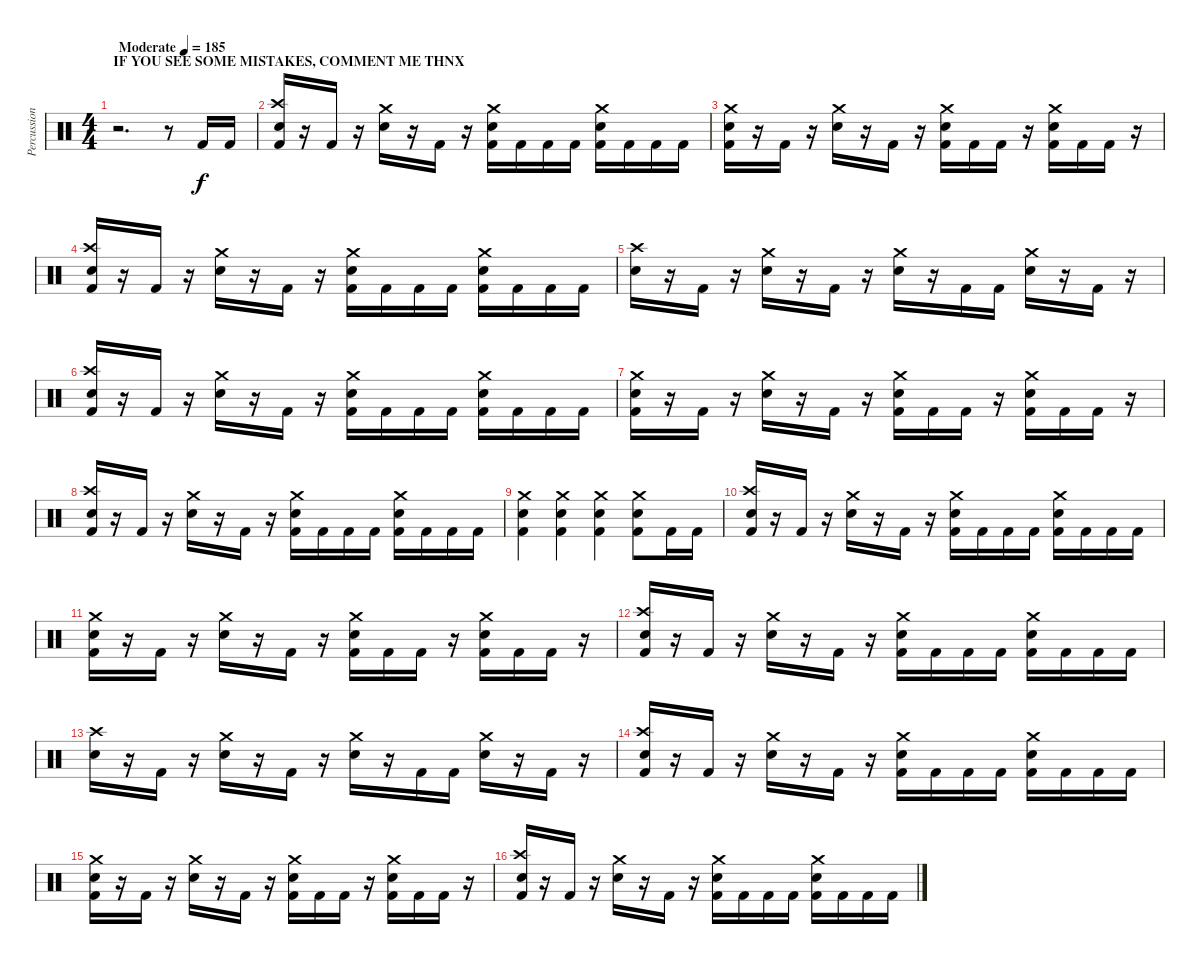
\track ("Percussion" "Percussion") {instrument percussion}
\staff {score}
\articulation defaults
\ts (4 4)
\section ("" "IF YOU SEE SOME MISTAKES, COMMENT ME THNX")
\tempo (185 "Moderate")
\clef neutral
\ks c
r.2{d dy f} r.8 "Kick (hit) 2".16 "Kick (hit) 2".16 |
("Crash high (hit)" "Snare (hit) 2" "Kick (hit) 2").16 r.16 "Kick (hit) 2".16 r.16 ("Crash medium (hit)" "Snare (hit) 2").16 r.16 "Kick (hit) 2".16 r.16 ("Crash medium (hit)" "Snare (hit) 2" "Kick (hit) 2").16 "Kick (hit) 2".16 "Kick (hit) 2".16 "Kick (hit) 2".16 ("Crash medium (hit)" "Snare (hit) 2" "Kick (hit) 2").16 "Kick (hit) 2".16 "Kick (hit) 2".16 "Kick (hit) 2".16 |
("Crash medium (hit)" "Snare (hit) 2" "Kick (hit) 2").16 r.16 "Kick (hit) 2".16 r.16 ("Crash medium (hit)" "Snare (hit) 2").16 r.16 "Kick (hit) 2".16 r.16 ("Crash medium (hit)" "Snare (hit) 2" "Kick (hit) 2").16 "Kick (hit) 2".16 "Kick (hit) 2".16 r.16 ("Crash medium (hit)" "Snare (hit) 2" "Kick (hit) 2").16 "Kick (hit) 2".16 "Kick (hit) 2".16 r.16 |
("Crash high (hit)" "Snare (hit) 2" "Kick (hit) 2").16 r.16 "Kick (hit) 2".16 r.16 ("Crash medium (hit)" "Snare (hit) 2").16 r.16 "Kick (hit) 2".16 r.16 ("Crash medium (hit)" "Snare (hit) 2" "Kick (hit) 2").16 "Kick (hit) 2".16 "Kick (hit) 2".16 "Kick (hit) 2".16 ("Crash medium (hit)" "Snare (hit) 2" "Kick (hit) 2").16 "Kick (hit) 2".16 "Kick (hit) 2".16 "Kick (hit) 2".16 |
("Crash high (hit)" "Snare (hit) 2").16 r.16 "Kick (hit) 2".16 r.16 ("Crash medium (hit)" "Snare (hit) 2").16 r.16 "Kick (hit) 2".16 r.16 ("Crash medium (hit)" "Snare (hit) 2").16 r.16 "Kick (hit) 2".16 "Kick (hit) 2".16 ("Crash medium (hit)" "Snare (hit) 2").16 r.16 "Kick (hit) 2".16 r.16 |
("Crash high (hit)" "Snare (hit) 2" "Kick (hit) 2").16 r.16 "Kick (hit) 2".16 r.16 ("Crash medium (hit)" "Snare (hit) 2").16 r.16 "Kick (hit) 2".16 r.16 ("Crash medium (hit)" "Snare (hit) 2" "Kick (hit) 2").16 "Kick (hit) 2".16 "Kick (hit) 2".16 "Kick (hit) 2".16 ("Crash medium (hit)" "Snare (hit) 2" "Kick (hit) 2").16 "Kick (hit) 2".16 "Kick (hit) 2".16 "Kick (hit) 2".16 |
("Crash medium (hit)" "Snare (hit) 2" "Kick (hit) 2").16 r.16 "Kick (hit) 2".16 r.16 ("Crash medium (hit)" "Snare (hit) 2").16 r.16 "Kick (hit) 2".16 r.16 ("Crash medium (hit)" "Snare (hit) 2" "Kick (hit) 2").16 "Kick (hit) 2".16 "Kick (hit) 2".16 r.16 ("Crash medium (hit)" "Snare (hit) 2" "Kick (hit) 2").16 "Kick (hit) 2".16 "Kick (hit) 2".16 r.16 |
("Crash high (hit)" "Snare (hit) 2" "Kick (hit) 2").16 r.16 "Kick (hit) 2".16 r.16 ("Crash medium (hit)" "Snare (hit) 2").16 r.16 "Kick (hit) 2".16 r.16 ("Crash medium (hit)" "Snare (hit) 2" "Kick (hit) 2").16 "Kick (hit) 2".16 "Kick (hit) 2".16 "Kick (hit) 2".16 ("Crash medium (hit)" "Snare (hit) 2" "Kick (hit) 2").16 "Kick (hit) 2".16 "Kick (hit) 2".16 "Kick (hit) 2".16 |
("Crash medium (hit)" "Snare (hit) 2" "Kick (hit) 2").4 ("Crash medium (hit)" "Snare (hit) 2" "Kick (hit) 2").4 ("Crash medium (hit)" "Snare (hit) 2" "Kick (hit) 2").4 ("Crash medium (hit)" "Snare (hit) 2" "Kick (hit) 2").8 "Kick (hit) 2".16 "Kick (hit) 2".16 |
("Crash high (hit)" "Snare (hit) 2" "Kick (hit) 2").16 r.16 "Kick (hit) 2".16 r.16 ("Crash medium (hit)" "Snare (hit) 2").16 r.16 "Kick (hit) 2".16 r.16 ("Crash medium (hit)" "Snare (hit) 2" "Kick (hit) 2").16 "Kick (hit) 2".16 "Kick (hit) 2".16 "Kick (hit) 2".16 ("Crash medium (hit)" "Snare (hit) 2" "Kick (hit) 2").16 "Kick (hit) 2".16 "Kick (hit) 2".16 "Kick (hit) 2".16 |
("Crash medium (hit)" "Snare (hit) 2" "Kick (hit) 2").16 r.16 "Kick (hit) 2".16 r.16 ("Crash medium (hit)" "Snare (hit) 2").16 r.16 "Kick (hit) 2".16 r.16 ("Crash medium (hit)" "Snare (hit) 2" "Kick (hit) 2").16 "Kick (hit) 2".16 "Kick (hit) 2".16 r.16 ("Crash medium (hit)" "Snare (hit) 2" "Kick (hit) 2").16 "Kick (hit) 2".16 "Kick (hit) 2".16 r.16 |
("Crash high (hit)" "Snare (hit) 2" "Kick (hit) 2").16 r.16 "Kick (hit) 2".16 r.16 ("Crash medium (hit)" "Snare (hit) 2").16 r.16 "Kick (hit) 2".16 r.16 ("Crash medium (hit)" "Snare (hit) 2" "Kick (hit) 2").16 "Kick (hit) 2".16 "Kick (hit) 2".16 "Kick (hit) 2".16 ("Crash medium (hit)" "Snare (hit) 2" "Kick (hit) 2").16 "Kick (hit) 2".16 "Kick (hit) 2".16 "Kick (hit) 2".16 |
("Crash high (hit)" "Snare (hit) 2").16 r.16 "Kick (hit) 2".16 r.16 ("Crash medium (hit)" "Snare (hit) 2").16 r.16 "Kick (hit) 2".16 r.16 ("Crash medium (hit)" "Snare (hit) 2").16 r.16 "Kick (hit) 2".16 "Kick (hit) 2".16 ("Crash medium (hit)" "Snare (hit) 2").16 r.16 "Kick (hit) 2".16 r.16 |
("Crash high (hit)" "Snare (hit) 2" "Kick (hit) 2").16 r.16 "Kick (hit) 2".16 r.16 ("Crash medium (hit)" "Snare (hit) 2").16 r.16 "Kick (hit) 2".16 r.16 ("Crash medium (hit)" "Snare (hit) 2" "Kick (hit) 2").16 "Kick (hit) 2".16 "Kick (hit) 2".16 "Kick (hit) 2".16 ("Crash medium (hit)" "Snare (hit) 2" "Kick (hit) 2").16 "Kick (hit) 2".16 "Kick (hit) 2".16 "Kick (hit) 2".16 |
("Crash medium (hit)" "Snare (hit) 2" "Kick (hit) 2").16 r.16 "Kick (hit) 2".16 r.16 ("Crash medium (hit)" "Snare (hit) 2").16 r.16 "Kick (hit) 2".16 r.16 ("Crash medium (hit)" "Snare (hit) 2" "Kick (hit) 2").16 "Kick (hit) 2".16 "Kick (hit) 2".16 r.16 ("Crash medium (hit)" "Snare (hit) 2" "Kick (hit) 2").16 "Kick (hit) 2".16 "Kick (hit) 2".16 r.16 |
("Crash high (hit)" "Snare (hit) 2" "Kick (hit) 2").16 r.16 "Kick (hit) 2".16 r.16 ("Crash medium (hit)" "Snare (hit) 2").16 r.16 "Kick (hit) 2".16 r.16 ("Crash medium (hit)" "Snare (hit) 2" "Kick (hit) 2").16 "Kick (hit) 2".16 "Kick (hit) 2".16 "Kick (hit) 2".16 ("Crash medium (hit)" "Snare (hit) 2" "Kick (hit) 2").16 "Kick (hit) 2".16 "Kick (hit) 2".16 "Kick (hit) 2".16
